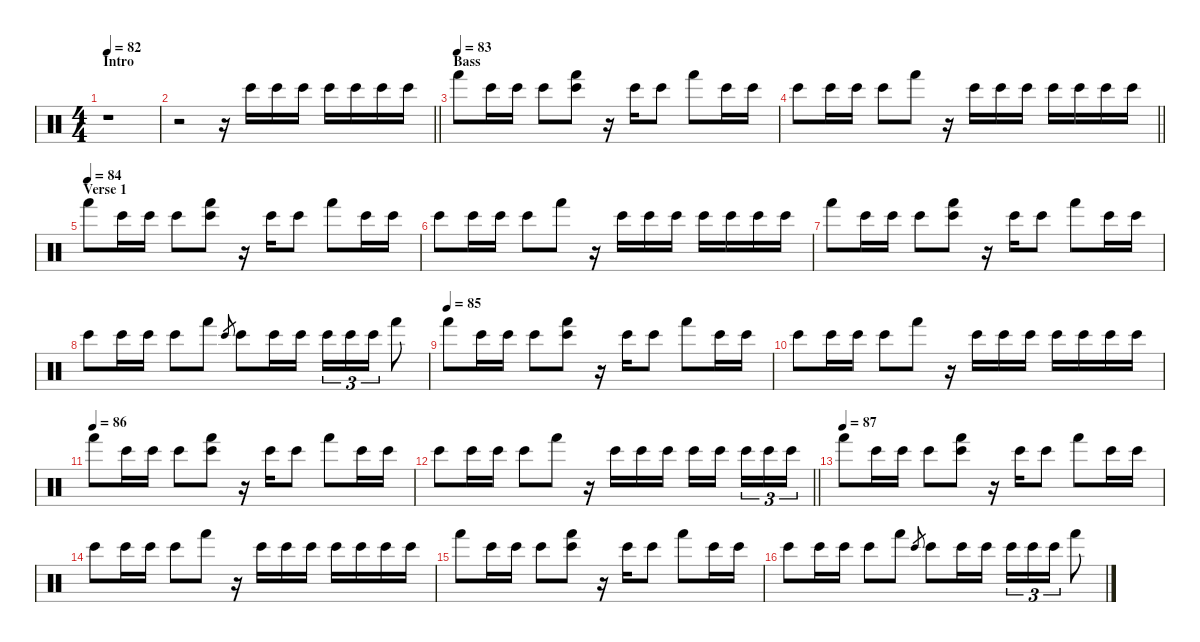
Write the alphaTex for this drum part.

\defaultSystemsLayout 4
\hideDynamics
\bracketExtendMode nobrackets
\singleTrackTrackNamePolicy hidden
\multiTrackTrackNamePolicy hidden
\firstSystemTrackNameMode fullname
\firstSystemTrackNameOrientation horizontal
\otherSystemsTrackNameOrientation horizontal
\track ("Bill Ward" "drm.") {defaultSystemsLayout 4 instrument percussion}
\staff {score}
\articulation defaults
\ts (4 4)
\beaming (8 2 2 2 2)
\section ("" "Intro")
\tempo 82
\clef neutral
\ks c
r.1{dy pp beam Down} |
\barLineRight lightlight
r.2{beam Down} r.16{beam Down} "Bongo High (hit)".16{beam Down} "Bongo High (hit)".16{dy p beam Down} "Bongo High (hit)".16{dy mp beam Down} "Bongo High (hit)".16{dy mf beam Down} "Bongo High (hit)".16{beam Down} "Bongo High (hit)".16{dy f beam Down} "Bongo High (hit)".16{beam Down} |
\section ("" "Bass")
\tempo (83)
"Hand (hit)".8{beam Down} "Bongo High (hit)".16{beam Down} "Bongo High (hit)".16{beam Down} "Bongo High (hit)".8{beam Down} ("Bongo High (hit)" "Hand (hit)").8{beam Down} r.16{beam Down} "Bongo High (hit)".16{beam Down} "Bongo High (hit)".8{beam Down} "Hand (hit)".8{beam Down} "Bongo High (hit)".16{beam Down} "Bongo High (hit)".16{beam Down} |
\barLineRight lightlight "Bongo High (hit)".8{beam Down} "Bongo High (hit)".16{beam Down} "Bongo High (hit)".16{beam Down} "Bongo High (hit)".8{beam Down} "Hand (hit)".8{beam Down}
r.16{beam Down} "Bongo High (hit)".16{beam Down} "Bongo High (hit)".16{beam Down} "Bongo High (hit)".16{beam Down} "Bongo High (hit)".16{beam Down} "Bongo High (hit)".16{beam Down} "Bongo High (hit)".16{beam Down} "Bongo High (hit)".16{beam Down} |
\section ("" "Verse 1")
\tempo (84)
"Hand (hit)".8{beam Down} "Bongo High (hit)".16{beam Down} "Bongo High (hit)".16{beam Down} "Bongo High (hit)".8{beam Down} ("Bongo High (hit)" "Hand (hit)").8{beam Down} r.16{beam Down} "Bongo High (hit)".16{beam Down} "Bongo High (hit)".8{beam Down} "Hand (hit)".8{beam Down} "Bongo High (hit)".16{beam Down} "Bongo High (hit)".16{beam Down} |
"Bongo High (hit)".8{beam Down} "Bongo High (hit)".16{beam Down} "Bongo High (hit)".16{beam Down} "Bongo High (hit)".8{beam Down} "Hand (hit)".8{beam Down} r.16{beam Down} "Bongo High (hit)".16{beam Down} "Bongo High (hit)".16{beam Down} "Bongo High (hit)".16{beam Down} "Bongo High (hit)".16{beam Down} "Bongo High (hit)".16{beam Down} "Bongo High (hit)".16{beam Down} "Bongo High (hit)".16{beam Down} |
"Hand (hit)".8{beam Down} "Bongo High (hit)".16{beam Down} "Bongo High (hit)".16{beam Down} "Bongo High (hit)".8{beam Down} ("Bongo High (hit)" "Hand (hit)").8{beam Down} r.16{beam Down} "Bongo High (hit)".16{beam Down} "Bongo High (hit)".8{beam Down} "Hand (hit)".8{beam Down} "Bongo High (hit)".16{beam Down} "Bongo High (hit)".16{beam Down} |
"Bongo High (hit)".8{beam Down} "Bongo High (hit)".16{beam Down} "Bongo High (hit)".16{beam Down} "Bongo High (hit)".8{beam Down} "Hand (hit)".8{beam Down} "Bongo High (hit)".8{gr dy mf beam Up} "Bongo High (hit)".8{dy f beam Down} "Bongo High (hit)".16{beam Down} "Bongo High (hit)".16{beam Down} "Bongo High (hit)".16{tu (3 2) beam Down} "Bongo High (hit)".16{tu (3 2) beam Down} "Bongo High (hit)".16{tu (3 2) beam Down} "Hand (hit)".8{beam Down} |
\tempo (85)
"Hand (hit)".8{beam Down} "Bongo High (hit)".16{beam Down} "Bongo High (hit)".16{beam Down} "Bongo High (hit)".8{beam Down} ("Bongo High (hit)" "Hand (hit)").8{beam Down} r.16{beam Down} "Bongo High (hit)".16{beam Down} "Bongo High (hit)".8{beam Down} "Hand (hit)".8{beam Down} "Bongo High (hit)".16{beam Down} "Bongo High (hit)".16{beam Down} |
"Bongo High (hit)".8{beam Down} "Bongo High (hit)".16{beam Down} "Bongo High (hit)".16{beam Down} "Bongo High (hit)".8{beam Down} "Hand (hit)".8{beam Down} r.16{beam Down} "Bongo High (hit)".16{beam Down} "Bongo High (hit)".16{beam Down} "Bongo High (hit)".16{beam Down} "Bongo High (hit)".16{beam Down} "Bongo High (hit)".16{beam Down} "Bongo High (hit)".16{beam Down} "Bongo High (hit)".16{beam Down} |
\tempo (86)
"Hand (hit)".8{beam Down} "Bongo High (hit)".16{beam Down} "Bongo High (hit)".16{beam Down} "Bongo High (hit)".8{beam Down} ("Bongo High (hit)" "Hand (hit)").8{beam Down} r.16{beam Down} "Bongo High (hit)".16{beam Down} "Bongo High (hit)".8{beam Down} "Hand (hit)".8{beam Down} "Bongo High (hit)".16{beam Down} "Bongo High (hit)".16{beam Down} |
\barLineRight lightlight "Bongo High (hit)".8{beam Down} "Bongo High (hit)".16{beam Down} "Bongo High (hit)".16{beam Down} "Bongo High (hit)".8{beam Down} "Hand (hit)".8{beam Down}
r.16{beam Down} "Bongo High (hit)".16{beam Down} "Bongo High (hit)".16{beam Down} "Bongo High (hit)".16{beam Down} "Bongo High (hit)".16{beam Down} "Bongo High (hit)".16{beam Down} "Bongo High (hit)".16{tu (3 2) beam Down} "Bongo High (hit)".16{tu (3 2) beam Down} "Bongo High (hit)".16{tu (3 2) beam Down} |
\tempo (87)
"Hand (hit)".8{beam Down} "Bongo High (hit)".16{beam Down} "Bongo High (hit)".16{beam Down} "Bongo High (hit)".8{beam Down} ("Bongo High (hit)" "Hand (hit)").8{beam Down} r.16{beam Down} "Bongo High (hit)".16{beam Down} "Bongo High (hit)".8{beam Down} "Hand (hit)".8{beam Down} "Bongo High (hit)".16{beam Down} "Bongo High (hit)".16{beam Down} |
"Bongo High (hit)".8{beam Down} "Bongo High (hit)".16{beam Down} "Bongo High (hit)".16{beam Down} "Bongo High (hit)".8{beam Down} "Hand (hit)".8{beam Down} r.16{beam Down} "Bongo High (hit)".16{beam Down} "Bongo High (hit)".16{beam Down} "Bongo High (hit)".16{beam Down} "Bongo High (hit)".16{beam Down} "Bongo High (hit)".16{beam Down} "Bongo High (hit)".16{beam Down} "Bongo High (hit)".16{beam Down} |
"Hand (hit)".8{beam Down} "Bongo High (hit)".16{beam Down} "Bongo High (hit)".16{beam Down} "Bongo High (hit)".8{beam Down} ("Bongo High (hit)" "Hand (hit)").8{beam Down} r.16{beam Down} "Bongo High (hit)".16{beam Down} "Bongo High (hit)".8{beam Down} "Hand (hit)".8{beam Down} "Bongo High (hit)".16{beam Down} "Bongo High (hit)".16{beam Down} |
"Bongo High (hit)".8{beam Down} "Bongo High (hit)".16{beam Down} "Bongo High (hit)".16{beam Down} "Bongo High (hit)".8{beam Down} "Hand (hit)".8{beam Down} "Bongo High (hit)".8{gr dy mf beam Up} "Bongo High (hit)".8{dy f beam Down} "Bongo High (hit)".16{beam Down} "Bongo High (hit)".16{beam Down} "Bongo High (hit)".16{tu (3 2) beam Down} "Bongo High (hit)".16{tu (3 2) beam Down} "Bongo High (hit)".16{tu (3 2) beam Down} "Hand (hit)".8{beam Down}
